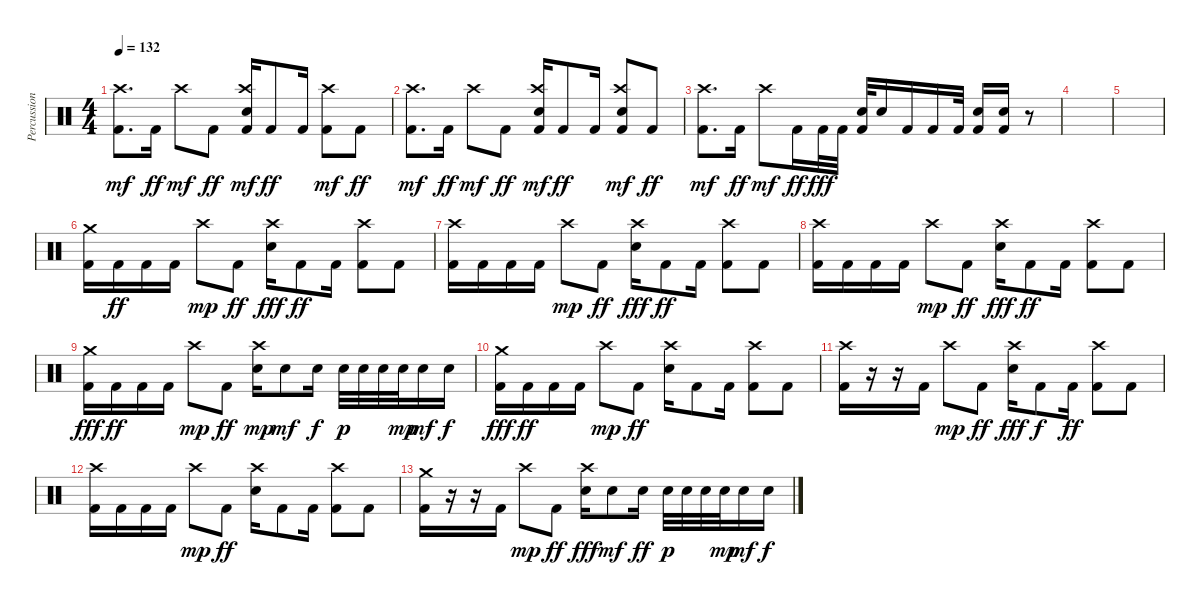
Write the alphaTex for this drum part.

\track ("Percussion" "Percussion") {instrument percussion}
\staff {score}
\articulation defaults
\ts (4 4)
\tempo 132
\clef neutral
\ks c
("Kick (hit) 2" "Crash high (hit)").8{d dy mf} "Kick (hit) 2".16{dy ff} "Crash high (hit)".8{dy mf} "Kick (hit) 2".8{dy ff} ("Kick (hit) 2" "Electric Snare (hit)" "Crash high (hit)").16{dy mf} "Kick (hit) 2".8{dy ff} "Kick (hit) 2".16 ("Kick (hit) 2" "Crash high (hit)").8{dy mf} "Kick (hit) 2".8{dy ff} |
("Kick (hit) 2" "Crash high (hit)").8{d dy mf} "Kick (hit) 2".16{dy ff} "Crash high (hit)".8{dy mf} "Kick (hit) 2".8{dy ff} ("Kick (hit) 2" "Electric Snare (hit)" "Crash high (hit)").16{dy mf} "Kick (hit) 2".8{dy ff} "Kick (hit) 2".16 ("Kick (hit) 2" "Electric Snare (hit)" "Crash high (hit)").8{dy mf} "Kick (hit) 2".8{dy ff} |
("Kick (hit) 2" "Crash high (hit)").8{d dy mf} "Kick (hit) 2".16{dy ff} "Crash high (hit)".8{dy mf} "Kick (hit) 2".16{dy ff} "Kick (hit) 2".32{dy fff} "Kick (hit) 2".32 ("Kick (hit) 2" "Electric Snare (hit)").32 "Electric Snare (hit)".16 "Kick (hit) 2".16 "Kick (hit) 2".16 "Kick (hit) 2".32 ("Kick (hit) 2" "Electric Snare (hit)").16 ("Kick (hit) 2" "Electric Snare (hit)").16 r.8 |
|
|
("Crash medium (hit)" "Kick (hit) 2").16 "Kick (hit) 2".16{dy ff} "Kick (hit) 2".16 "Kick (hit) 2".16 "Crash high (hit)".8{dy mp} "Kick (hit) 2".8{dy ff} ("Crash high (hit)" "Electric Snare (hit)").16{dy fff} "Kick (hit) 2".8{dy ff} "Kick (hit) 2".16 ("Crash high (hit)" "Kick (hit) 2").8 "Kick (hit) 2".8 |
("Crash high (hit)" "Kick (hit) 2").16 "Kick (hit) 2".16 "Kick (hit) 2".16 "Kick (hit) 2".16 "Crash high (hit)".8{dy mp} "Kick (hit) 2".8{dy ff} ("Crash high (hit)" "Electric Snare (hit)").16{dy fff} "Kick (hit) 2".8{dy ff} "Kick (hit) 2".16 ("Crash high (hit)" "Kick (hit) 2").8 "Kick (hit) 2".8 |
("Crash high (hit)" "Kick (hit) 2").16 "Kick (hit) 2".16 "Kick (hit) 2".16 "Kick (hit) 2".16 "Crash high (hit)".8{dy mp} "Kick (hit) 2".8{dy ff} ("Crash high (hit)" "Electric Snare (hit)").16{dy fff} "Kick (hit) 2".8{dy ff} "Kick (hit) 2".16 ("Crash high (hit)" "Kick (hit) 2").8 "Kick (hit) 2".8 |
("Crash medium (hit)" "Kick (hit) 2").16{dy fff} "Kick (hit) 2".16{dy ff} "Kick (hit) 2".16 "Kick (hit) 2".16 "Crash high (hit)".8{dy mp} "Kick (hit) 2".8{dy ff} ("Crash high (hit)" "Electric Snare (hit)").16{dy mp} "Electric Snare (hit)".8{dy mf} "Electric Snare (hit)".16{dy f} "Electric Snare (hit)".32{dy p} "Electric Snare (hit)".32 "Electric Snare (hit)".32 "Electric Snare (hit)".32{dy mp} "Electric Snare (hit)".16{dy mf} "Electric Snare (hit)".16{dy f} |
("Crash medium (hit)" "Kick (hit) 2").16{dy fff} "Kick (hit) 2".16{dy ff} "Kick (hit) 2".16 "Kick (hit) 2".16 "Crash high (hit)".8{dy mp} "Kick (hit) 2".8{dy ff} ("Crash high (hit)" "Electric Snare (hit)").16 "Kick (hit) 2".8 "Kick (hit) 2".16 ("Crash high (hit)" "Kick (hit) 2").8 "Kick (hit) 2".8 |
("Crash high (hit)" "Kick (hit) 2").16 r.16 r.16 "Kick (hit) 2".16 "Crash high (hit)".8{dy mp} "Kick (hit) 2".8{dy ff} ("Crash high (hit)" "Electric Snare (hit)").16{dy fff} "Kick (hit) 2".8{dy f} "Kick (hit) 2".16{dy ff} ("Crash high (hit)" "Kick (hit) 2").8 "Kick (hit) 2".8 |
("Crash high (hit)" "Kick (hit) 2").16 "Kick (hit) 2".16 "Kick (hit) 2".16 "Kick (hit) 2".16 "Crash high (hit)".8{dy mp} "Kick (hit) 2".8{dy ff} ("Crash high (hit)" "Electric Snare (hit)").16 "Kick (hit) 2".8 "Kick (hit) 2".16 ("Crash high (hit)" "Kick (hit) 2").8 "Kick (hit) 2".8 |
("Crash medium (hit)" "Kick (hit) 2").16 r.16 r.16 "Kick (hit) 2".16 "Crash high (hit)".8{dy mp} "Kick (hit) 2".8{dy ff} ("Crash high (hit)" "Electric Snare (hit)").16{dy fff} "Electric Snare (hit)".8{dy mf} "Electric Snare (hit)".16{dy ff} "Electric Snare (hit)".32{dy p} "Electric Snare (hit)".32 "Electric Snare (hit)".32 "Electric Snare (hit)".32{dy mp} "Electric Snare (hit)".16{dy mf} "Electric Snare (hit)".16{dy f}
